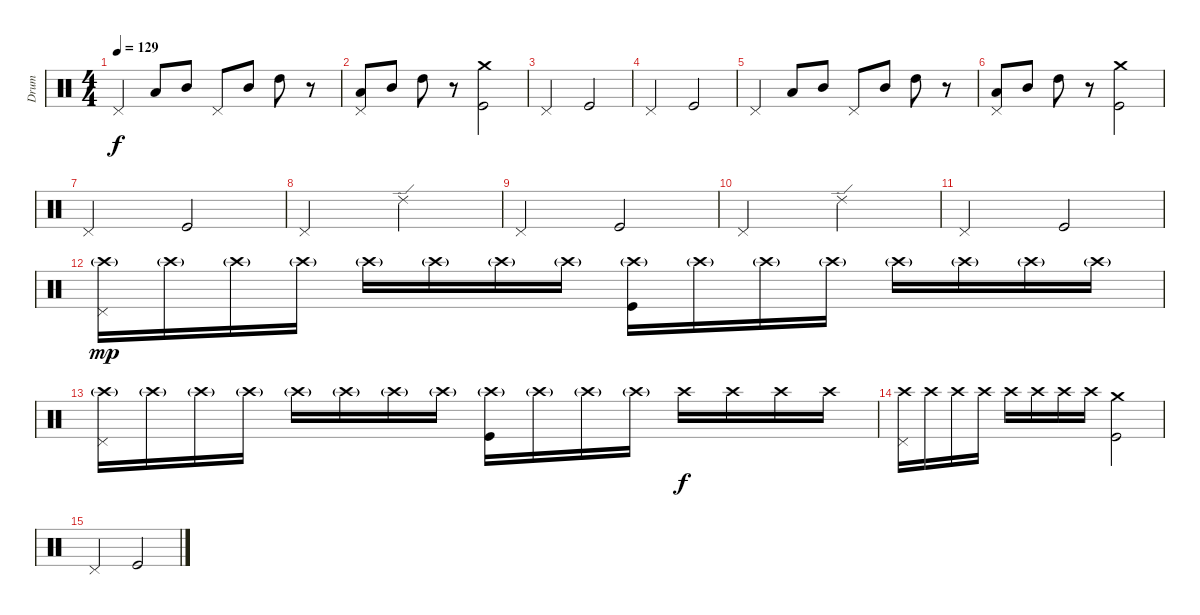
\track ("Drum" "Drum") {instrument percussion}
\staff {score}
\articulation defaults
\ts (4 4)
\tempo 129
\clef neutral
\ks c "Pedal Hi-Hat (hit)".4{dy f} "Low Tom (hit)".8 "Mid Tom (hit)".8 "Pedal Hi-Hat (hit)".8 "Mid Tom (hit)".8 "High Tom (hit)".8
r.8 |
("Low Tom (hit)" "Pedal Hi-Hat (hit)").8 "Mid Tom (hit)".8 "High Tom (hit)".8 r.8 ("Crash medium (hit)" "Kick (hit)").2 |
"Pedal Hi-Hat (hit)".2 "Kick (hit)".2 |
"Pedal Hi-Hat (hit)".2 "Kick (hit)".2 |
"Pedal Hi-Hat (hit)".4 "Low Tom (hit)".8 "Mid Tom (hit)".8 "Pedal Hi-Hat (hit)".8 "Mid Tom (hit)".8 "High Tom (hit)".8 r.8 |
("Low Tom (hit)" "Pedal Hi-Hat (hit)").8 "Mid Tom (hit)".8 "High Tom (hit)".8 r.8 ("Crash medium (hit)" "Kick (hit)").2 |
"Pedal Hi-Hat (hit)".2 "Kick (hit)".2 |
"Pedal Hi-Hat (hit)".2 "Ride (edge) 2".2 |
"Pedal Hi-Hat (hit)".2 "Kick (hit)".2 |
"Pedal Hi-Hat (hit)".2 "Ride (edge) 2".2 |
"Pedal Hi-Hat (hit)".2 "Kick (hit)".2 |
("Crash high (hit)"{g} "Pedal Hi-Hat (hit)").16{dy mp} "Crash high (hit)"{g}.16 "Crash high (hit)"{g}.16 "Crash high (hit)"{g}.16 "Crash high (hit)"{g}.16 "Crash high (hit)"{g}.16 "Crash high (hit)"{g}.16 "Crash high (hit)"{g}.16 ("Crash high (hit)"{g} "Kick (hit)").16 "Crash high (hit)"{g}.16 "Crash high (hit)"{g}.16 "Crash high (hit)"{g}.16 "Crash high (hit)"{g}.16 "Crash high (hit)"{g}.16 "Crash high (hit)"{g}.16 "Crash high (hit)"{g}.16 |
("Crash high (hit)"{g} "Pedal Hi-Hat (hit)").16 "Crash high (hit)"{g}.16 "Crash high (hit)"{g}.16 "Crash high (hit)"{g}.16 "Crash high (hit)"{g}.16 "Crash high (hit)"{g}.16 "Crash high (hit)"{g}.16 "Crash high (hit)"{g}.16 ("Crash high (hit)"{g} "Kick (hit)").16 "Crash high (hit)"{g}.16 "Crash high (hit)"{g}.16 "Crash high (hit)"{g}.16 "Crash high (hit)".16{dy f} "Crash high (hit)".16 "Crash high (hit)".16 "Crash high (hit)".16 |
("Crash high (hit)" "Pedal Hi-Hat (hit)").16 "Crash high (hit)".16 "Crash high (hit)".16 "Crash high (hit)".16 "Crash high (hit)".16 "Crash high (hit)".16 "Crash high (hit)".16 "Crash high (hit)".16 ("Crash medium (hit)" "Kick (hit)").2 |
"Pedal Hi-Hat (hit)".2 "Kick (hit)".2
